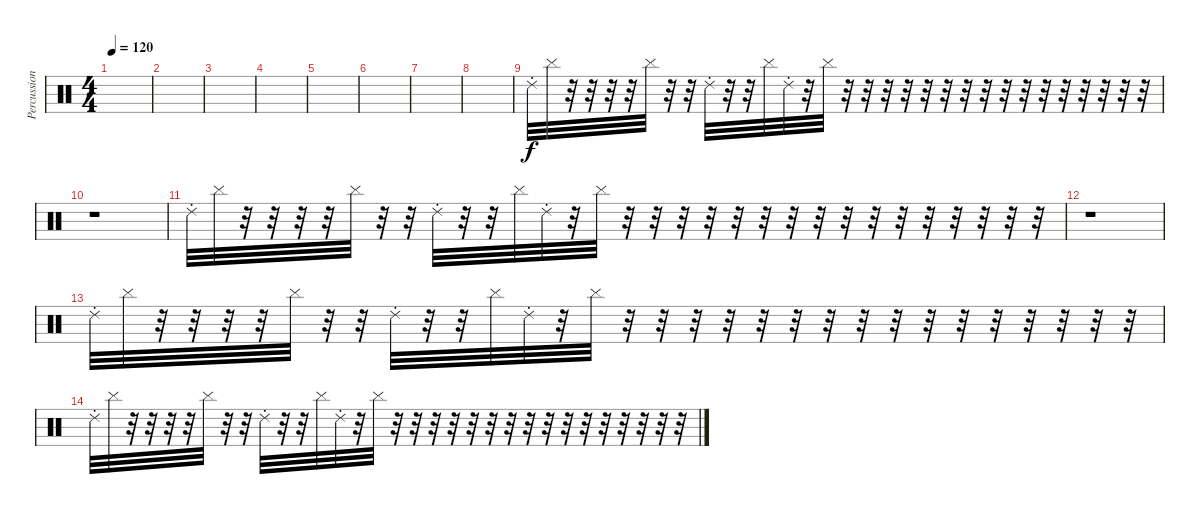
\track ("Percussions" "Percussion") {instrument percussion}
\staff {score}
\articulation defaults
\ts (4 4)
\tempo 120
\clef neutral
\ks c
|
|
|
|
|
|
|
|
"Ride (choke) 2".32 "Cymbal (hit)".32 r.32 r.32 r.32 r.32 "Cymbal (hit)".32 r.32 r.32 "Ride (choke) 2".32 r.32 r.32 "Cymbal (hit)".32 "Ride (choke) 2".32 r.32 "Cymbal (hit)".32 r.32 r.32 r.32 r.32 r.32 r.32 r.32 r.32 r.32 r.32 r.32 r.32 r.32 r.32 r.32 r.32 |
r.1 |
"Ride (choke) 2".32 "Cymbal (hit)".32 r.32 r.32 r.32 r.32 "Cymbal (hit)".32 r.32 r.32 "Ride (choke) 2".32 r.32 r.32 "Cymbal (hit)".32 "Ride (choke) 2".32 r.32 "Cymbal (hit)".32 r.32 r.32 r.32 r.32 r.32 r.32 r.32 r.32 r.32 r.32 r.32 r.32 r.32 r.32 r.32 r.32 |
r.1 |
"Ride (choke) 2".32 "Cymbal (hit)".32 r.32 r.32 r.32 r.32 "Cymbal (hit)".32 r.32 r.32 "Ride (choke) 2".32 r.32 r.32 "Cymbal (hit)".32 "Ride (choke) 2".32 r.32 "Cymbal (hit)".32 r.32 r.32 r.32 r.32 r.32 r.32 r.32 r.32 r.32 r.32 r.32 r.32 r.32 r.32 r.32 r.32 |
"Ride (choke) 2".32 "Cymbal (hit)".32 r.32 r.32 r.32 r.32 "Cymbal (hit)".32 r.32 r.32 "Ride (choke) 2".32 r.32 r.32 "Cymbal (hit)".32 "Ride (choke) 2".32 r.32 "Cymbal (hit)".32 r.32 r.32 r.32 r.32 r.32 r.32 r.32 r.32 r.32 r.32 r.32 r.32 r.32 r.32 r.32 r.32
